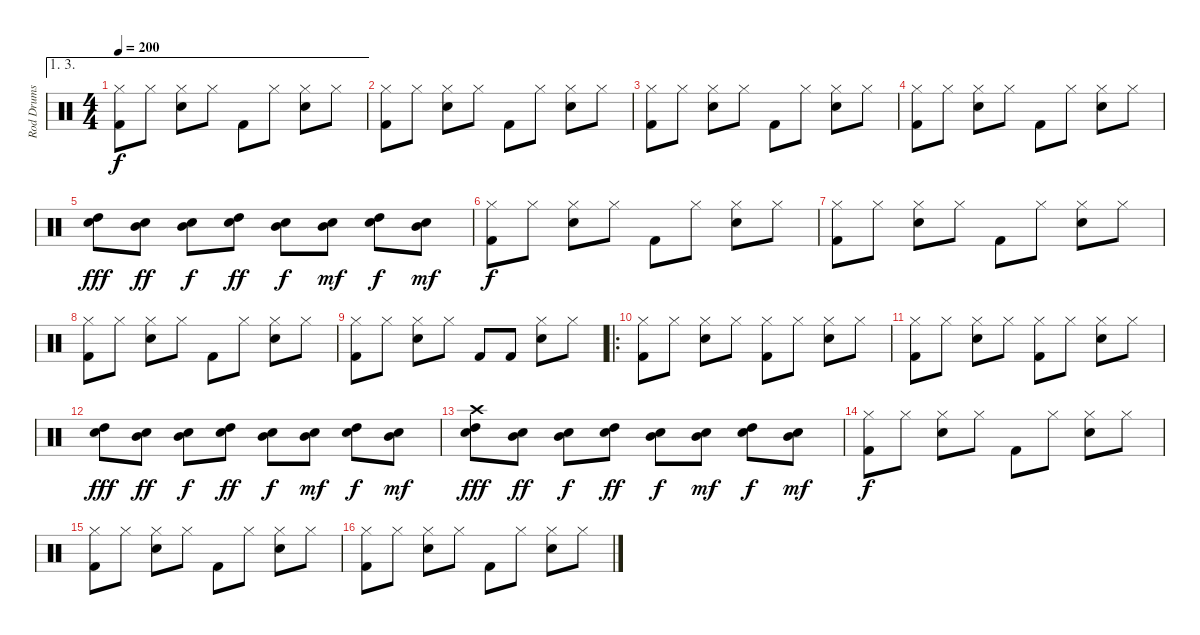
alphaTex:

\track ("Rod Drums" "Rod Drums") {instrument percussion}
\staff {score}
\articulation defaults
\ae (1 3)
\ts (4 4)
\tempo 200
\clef neutral
\ks c
("Kick (hit) 2" "Hi-Hat (closed)").8{dy f} "Hi-Hat (closed)".8 ("Snare (hit) 2" "Hi-Hat (closed)").8 "Hi-Hat (closed)".8 "Kick (hit) 2".8 "Hi-Hat (closed)".8 ("Snare (hit) 2" "Hi-Hat (closed)").8 "Hi-Hat (closed)".8 |
("Kick (hit) 2" "Hi-Hat (closed)").8 "Hi-Hat (closed)".8 ("Snare (hit) 2" "Hi-Hat (closed)").8 "Hi-Hat (closed)".8 "Kick (hit) 2".8 "Hi-Hat (closed)".8 ("Snare (hit) 2" "Hi-Hat (closed)").8 "Hi-Hat (closed)".8 |
("Kick (hit) 2" "Hi-Hat (closed)").8 "Hi-Hat (closed)".8 ("Snare (hit) 2" "Hi-Hat (closed)").8 "Hi-Hat (closed)".8 "Kick (hit) 2".8 "Hi-Hat (closed)".8 ("Snare (hit) 2" "Hi-Hat (closed)").8 "Hi-Hat (closed)".8 |
("Kick (hit) 2" "Hi-Hat (closed)").8 "Hi-Hat (closed)".8 ("Snare (hit) 2" "Hi-Hat (closed)").8 "Hi-Hat (closed)".8 "Kick (hit) 2".8 "Hi-Hat (closed)".8 ("Snare (hit) 2" "Hi-Hat (closed)").8 "Hi-Hat (closed)".8 |
("Snare (hit) 2" "High Tom (hit)").8{dy fff} ("Snare (hit) 2" "Mid Tom (hit)").8{dy ff} ("Snare (hit) 2" "Mid Tom (hit)").8{dy f} ("Snare (hit) 2" "High Tom (hit)").8{dy ff} ("Snare (hit) 2" "Mid Tom (hit)").8{dy f} ("Snare (hit) 2" "Mid Tom (hit)").8{dy mf} ("Snare (hit) 2" "High Tom (hit)").8{dy f} ("Snare (hit) 2" "Mid Tom (hit)").8{dy mf} |
("Kick (hit) 2" "Hi-Hat (closed)").8{dy f} "Hi-Hat (closed)".8 ("Snare (hit) 2" "Hi-Hat (closed)").8 "Hi-Hat (closed)".8 "Kick (hit) 2".8 "Hi-Hat (closed)".8 ("Snare (hit) 2" "Hi-Hat (closed)").8 "Hi-Hat (closed)".8 |
("Kick (hit) 2" "Hi-Hat (closed)").8 "Hi-Hat (closed)".8 ("Snare (hit) 2" "Hi-Hat (closed)").8 "Hi-Hat (closed)".8 "Kick (hit) 2".8 "Hi-Hat (closed)".8 ("Snare (hit) 2" "Hi-Hat (closed)").8 "Hi-Hat (closed)".8 |
("Kick (hit) 2" "Hi-Hat (closed)").8 "Hi-Hat (closed)".8 ("Snare (hit) 2" "Hi-Hat (closed)").8 "Hi-Hat (closed)".8 "Kick (hit) 2".8 "Hi-Hat (closed)".8 ("Snare (hit) 2" "Hi-Hat (closed)").8 "Hi-Hat (closed)".8 |
("Kick (hit) 2" "Hi-Hat (closed)").8 "Hi-Hat (closed)".8 ("Snare (hit) 2" "Hi-Hat (closed)").8 "Hi-Hat (closed)".8 "Kick (hit) 2".8 "Kick (hit) 2".8 ("Snare (hit) 2" "Hi-Hat (closed)").8 "Hi-Hat (closed)".8 |
\ro
("Kick (hit) 2" "Hi-Hat (closed)").8 "Hi-Hat (closed)".8 ("Snare (hit) 2" "Hi-Hat (closed)").8 "Hi-Hat (closed)".8 ("Kick (hit) 2" "Hi-Hat (closed)").8 "Hi-Hat (closed)".8 ("Snare (hit) 2" "Hi-Hat (closed)").8 "Hi-Hat (closed)".8 |
("Kick (hit) 2" "Hi-Hat (closed)").8 "Hi-Hat (closed)".8 ("Snare (hit) 2" "Hi-Hat (closed)").8 "Hi-Hat (closed)".8 ("Kick (hit) 2" "Hi-Hat (closed)").8 "Hi-Hat (closed)".8 ("Snare (hit) 2" "Hi-Hat (closed)").8 "Hi-Hat (closed)".8 |
("Snare (hit) 2" "High Tom (hit)").8{dy fff} ("Snare (hit) 2" "Mid Tom (hit)").8{dy ff} ("Snare (hit) 2" "Mid Tom (hit)").8{dy f} ("Snare (hit) 2" "High Tom (hit)").8{dy ff} ("Snare (hit) 2" "Mid Tom (hit)").8{dy f} ("Snare (hit) 2" "Mid Tom (hit)").8{dy mf} ("Snare (hit) 2" "High Tom (hit)").8{dy f} ("Snare (hit) 2" "Mid Tom (hit)").8{dy mf} |
("Snare (hit) 2" "High Tom (hit)" "Crash high (hit)").8{dy fff} ("Snare (hit) 2" "Mid Tom (hit)").8{dy ff} ("Snare (hit) 2" "Mid Tom (hit)").8{dy f} ("Snare (hit) 2" "High Tom (hit)").8{dy ff} ("Snare (hit) 2" "Mid Tom (hit)").8{dy f} ("Snare (hit) 2" "Mid Tom (hit)").8{dy mf} ("Snare (hit) 2" "High Tom (hit)").8{dy f} ("Snare (hit) 2" "Mid Tom (hit)").8{dy mf} |
("Kick (hit) 2" "Hi-Hat (closed)").8{dy f} "Hi-Hat (closed)".8 ("Snare (hit) 2" "Hi-Hat (closed)").8 "Hi-Hat (closed)".8 "Kick (hit) 2".8 "Hi-Hat (closed)".8 ("Snare (hit) 2" "Hi-Hat (closed)").8 "Hi-Hat (closed)".8 |
("Kick (hit) 2" "Hi-Hat (closed)").8 "Hi-Hat (closed)".8 ("Snare (hit) 2" "Hi-Hat (closed)").8 "Hi-Hat (closed)".8 "Kick (hit) 2".8 "Hi-Hat (closed)".8 ("Snare (hit) 2" "Hi-Hat (closed)").8 "Hi-Hat (closed)".8 |
("Kick (hit) 2" "Hi-Hat (closed)").8 "Hi-Hat (closed)".8 ("Snare (hit) 2" "Hi-Hat (closed)").8 "Hi-Hat (closed)".8 "Kick (hit) 2".8 "Hi-Hat (closed)".8 ("Snare (hit) 2" "Hi-Hat (closed)").8 "Hi-Hat (closed)".8
